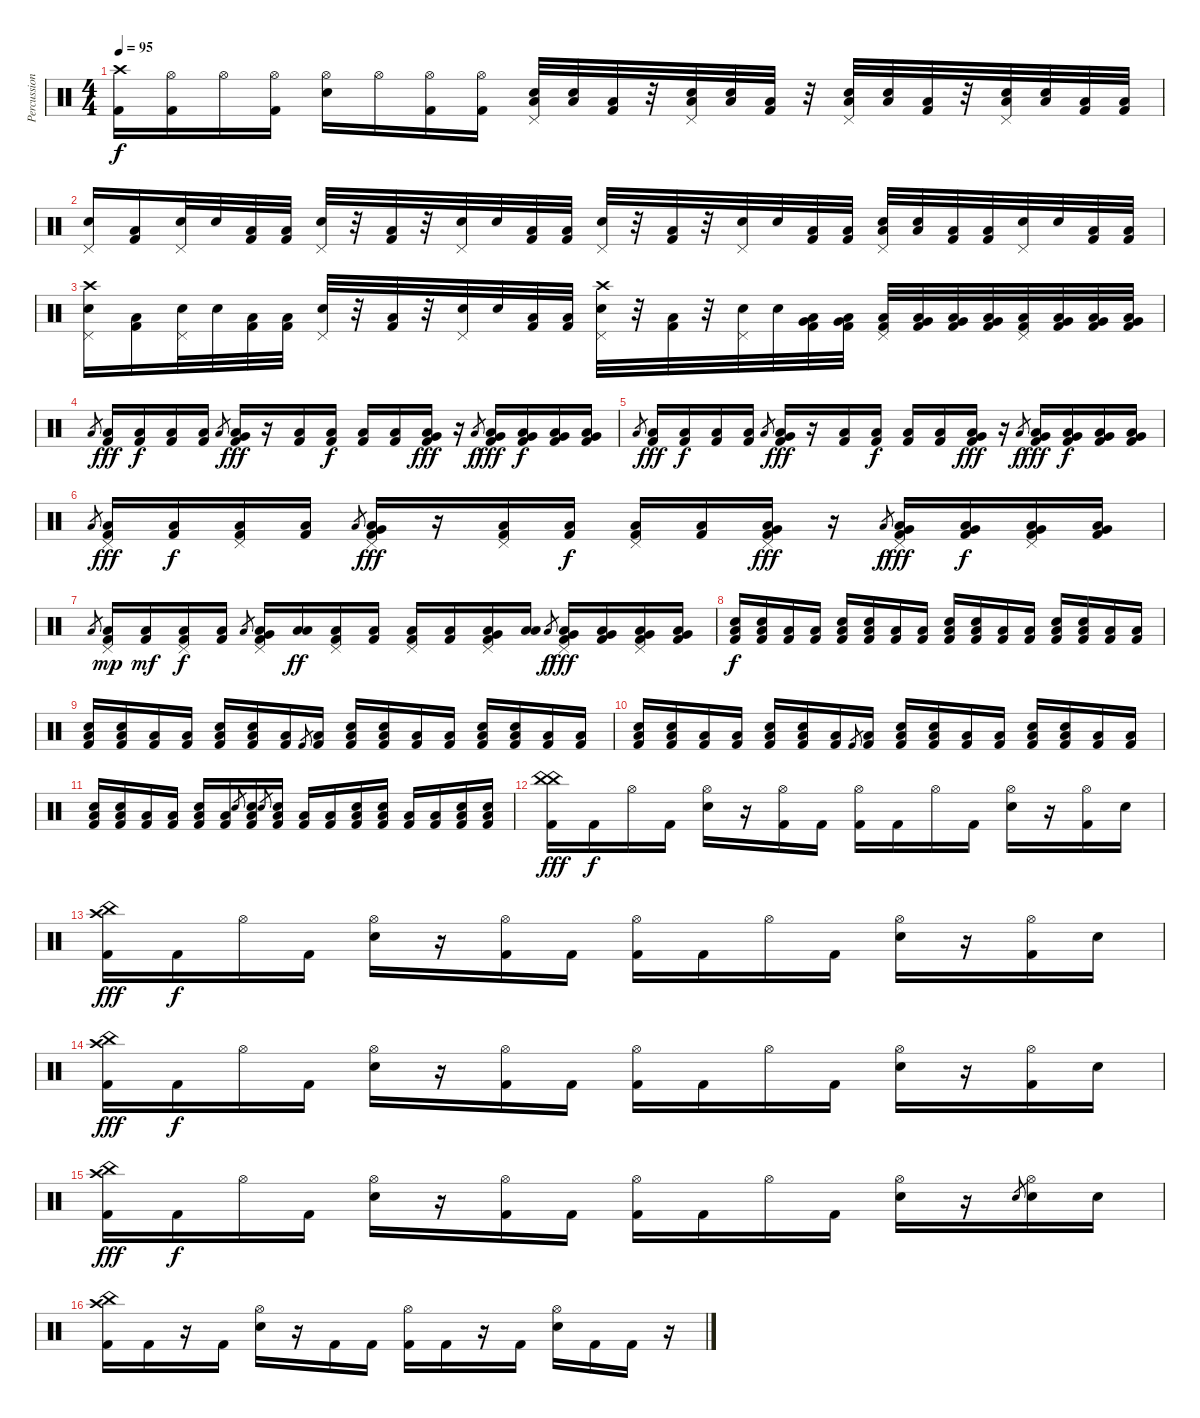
\track ("Percussion" "Percussion") {instrument percussion}
\staff {score}
\articulation defaults
\ts (4 4)
\tempo 95
\clef neutral
\ks c
("Crash high (hit)" "Kick (hit) 2").16{dy f} ("Hi-Hat (open)" "Kick (hit) 2").16 "Hi-Hat (open)".16 ("Hi-Hat (open)" "Kick (hit) 2").16 ("Hi-Hat (open)" "Electric Snare (hit)").16 "Hi-Hat (open)".16 ("Hi-Hat (open)" "Kick (hit) 2").16 ("Hi-Hat (open)" "Kick (hit) 2").16 ("Low Floor Tom (hit)" "Pedal Hi-Hat (hit)" "Electric Snare (hit)").32 ("Low Floor Tom (hit)" "Electric Snare (hit)").32 ("Low Floor Tom (hit)" "Kick (hit) 2").32 r.32 ("Low Floor Tom (hit)" "Pedal Hi-Hat (hit)" "Electric Snare (hit)").32 ("Low Floor Tom (hit)" "Electric Snare (hit)").32 ("Low Floor Tom (hit)" "Kick (hit) 2").32 r.32 ("Low Floor Tom (hit)" "Pedal Hi-Hat (hit)" "Electric Snare (hit)").32 ("Low Floor Tom (hit)" "Electric Snare (hit)").32 ("Low Floor Tom (hit)" "Kick (hit) 2").32 r.32 ("Low Floor Tom (hit)" "Pedal Hi-Hat (hit)" "Electric Snare (hit)").32 ("Low Floor Tom (hit)" "Electric Snare (hit)").32 ("Low Floor Tom (hit)" "Kick (hit) 2").32 ("Low Floor Tom (hit)" "Kick (hit) 2").32 |
("Pedal Hi-Hat (hit)" "Electric Snare (hit)").16 ("Low Floor Tom (hit)" "Kick (hit) 2").16 ("Pedal Hi-Hat (hit)" "Electric Snare (hit)").32 "Electric Snare (hit)".32 ("Low Floor Tom (hit)" "Kick (hit) 2").32 ("Low Floor Tom (hit)" "Kick (hit) 2").32 ("Pedal Hi-Hat (hit)" "Electric Snare (hit)").32 r.32 ("Low Floor Tom (hit)" "Kick (hit) 2").32 r.32 ("Pedal Hi-Hat (hit)" "Electric Snare (hit)").32 "Electric Snare (hit)".32 ("Low Floor Tom (hit)" "Kick (hit) 2").32 ("Low Floor Tom (hit)" "Kick (hit) 2").32 ("Pedal Hi-Hat (hit)" "Electric Snare (hit)").32 r.32 ("Low Floor Tom (hit)" "Kick (hit) 2").32 r.32 ("Pedal Hi-Hat (hit)" "Electric Snare (hit)").32 "Electric Snare (hit)".32 ("Low Floor Tom (hit)" "Kick (hit) 2").32 ("Low Floor Tom (hit)" "Kick (hit) 2").32 ("Pedal Hi-Hat (hit)" "Low Floor Tom (hit)" "Electric Snare (hit)").32 ("Low Floor Tom (hit)" "Electric Snare (hit)").32 ("Low Floor Tom (hit)" "Kick (hit) 2").32 ("Low Floor Tom (hit)" "Kick (hit) 2").32 ("Pedal Hi-Hat (hit)" "Electric Snare (hit)").32 "Electric Snare (hit)".32 ("Low Floor Tom (hit)" "Kick (hit) 2").32 ("Low Floor Tom (hit)" "Kick (hit) 2").32 |
("Crash high (hit)" "Pedal Hi-Hat (hit)" "Electric Snare (hit)").16 ("Low Floor Tom (hit)" "Kick (hit) 2").16 ("Pedal Hi-Hat (hit)" "Electric Snare (hit)").32 "Electric Snare (hit)".32 ("Low Floor Tom (hit)" "Kick (hit) 2").32 ("Low Floor Tom (hit)" "Kick (hit) 2").32 ("Pedal Hi-Hat (hit)" "Electric Snare (hit)").32 r.32 ("Low Floor Tom (hit)" "Kick (hit) 2").32 r.32 ("Pedal Hi-Hat (hit)" "Electric Snare (hit)").32 "Electric Snare (hit)".32 ("Low Floor Tom (hit)" "Kick (hit) 2").32 ("Low Floor Tom (hit)" "Kick (hit) 2").32 ("Crash high (hit)" "Pedal Hi-Hat (hit)" "Electric Snare (hit)").32 r.32 ("Low Floor Tom (hit)" "Kick (hit) 2").32 r.32 ("Pedal Hi-Hat (hit)" "Electric Snare (hit)").32 "Electric Snare (hit)".32 ("Very Low Tom (hit)" "Low Floor Tom (hit)" "Kick (hit) 2").32 ("Very Low Tom (hit)" "Low Floor Tom (hit)" "Kick (hit) 2").32 ("Pedal Hi-Hat (hit)" "Low Floor Tom (hit)" "Kick (hit) 2").32 ("Very Low Tom (hit)" "Low Floor Tom (hit)" "Kick (hit) 2").32 ("Very Low Tom (hit)" "Low Floor Tom (hit)" "Kick (hit) 2").32 ("Very Low Tom (hit)" "Low Floor Tom (hit)" "Kick (hit) 2").32 ("Pedal Hi-Hat (hit)" "Low Floor Tom (hit)" "Kick (hit) 2").32 ("Very Low Tom (hit)" "Low Floor Tom (hit)" "Kick (hit) 2").32 ("Very Low Tom (hit)" "Low Floor Tom (hit)" "Kick (hit) 2").32 ("Very Low Tom (hit)" "Low Floor Tom (hit)" "Kick (hit) 2").32 |
"Low Floor Tom (hit)".8{gr} ("Kick (hit) 2" "Low Floor Tom (hit)").16{dy fff} ("Kick (hit) 2" "Low Floor Tom (hit)").16{dy f} ("Kick (hit) 2" "Low Floor Tom (hit)").16 ("Kick (hit) 2" "Low Floor Tom (hit)").16 "Low Floor Tom (hit)".8{gr} ("Very Low Tom (hit)" "Kick (hit) 2" "Low Floor Tom (hit)").16{dy fff} r.16 ("Kick (hit) 2" "Low Floor Tom (hit)").16 ("Kick (hit) 2" "Low Floor Tom (hit)").16{dy f} ("Kick (hit) 2" "Low Floor Tom (hit)").16 ("Kick (hit) 2" "Low Floor Tom (hit)").16 ("Very Low Tom (hit)" "Kick (hit) 2" "Low Floor Tom (hit)").16{dy fff} r.16 "Low Floor Tom (hit)".8{gr dy f} ("Very Low Tom (hit)" "Kick (hit) 2" "Low Floor Tom (hit)").16{dy fff} ("Very Low Tom (hit)" "Kick (hit) 2" "Low Floor Tom (hit)").16{dy f} ("Very Low Tom (hit)" "Kick (hit) 2" "Low Floor Tom (hit)").16 ("Very Low Tom (hit)" "Kick (hit) 2" "Low Floor Tom (hit)").16 |
"Low Floor Tom (hit)".8{gr} ("Kick (hit) 2" "Low Floor Tom (hit)").16{dy fff} ("Kick (hit) 2" "Low Floor Tom (hit)").16{dy f} ("Kick (hit) 2" "Low Floor Tom (hit)").16 ("Kick (hit) 2" "Low Floor Tom (hit)").16 "Low Floor Tom (hit)".8{gr} ("Very Low Tom (hit)" "Kick (hit) 2" "Low Floor Tom (hit)").16{dy fff} r.16 ("Kick (hit) 2" "Low Floor Tom (hit)").16 ("Kick (hit) 2" "Low Floor Tom (hit)").16{dy f} ("Kick (hit) 2" "Low Floor Tom (hit)").16 ("Kick (hit) 2" "Low Floor Tom (hit)").16 ("Very Low Tom (hit)" "Kick (hit) 2" "Low Floor Tom (hit)").16{dy fff} r.16 "Low Floor Tom (hit)".8{gr dy f} ("Very Low Tom (hit)" "Kick (hit) 2" "Low Floor Tom (hit)").16{dy fff} ("Very Low Tom (hit)" "Kick (hit) 2" "Low Floor Tom (hit)").16{dy f} ("Very Low Tom (hit)" "Kick (hit) 2" "Low Floor Tom (hit)").16 ("Very Low Tom (hit)" "Kick (hit) 2" "Low Floor Tom (hit)").16 |
"Low Floor Tom (hit)".8{gr} ("Pedal Hi-Hat (hit)" "Kick (hit) 2" "Low Floor Tom (hit)").16{dy fff} ("Kick (hit) 2" "Low Floor Tom (hit)").16{dy f} ("Pedal Hi-Hat (hit)" "Kick (hit) 2" "Low Floor Tom (hit)").16 ("Kick (hit) 2" "Low Floor Tom (hit)").16 "Low Floor Tom (hit)".8{gr} ("Pedal Hi-Hat (hit)" "Very Low Tom (hit)" "Kick (hit) 2" "Low Floor Tom (hit)").16{dy fff} r.16 ("Pedal Hi-Hat (hit)" "Kick (hit) 2" "Low Floor Tom (hit)").16 ("Kick (hit) 2" "Low Floor Tom (hit)").16{dy f} ("Pedal Hi-Hat (hit)" "Kick (hit) 2" "Low Floor Tom (hit)").16 ("Kick (hit) 2" "Low Floor Tom (hit)").16 ("Pedal Hi-Hat (hit)" "Very Low Tom (hit)" "Kick (hit) 2" "Low Floor Tom (hit)").16{dy fff} r.16 "Low Floor Tom (hit)".8{gr dy f} ("Pedal Hi-Hat (hit)" "Very Low Tom (hit)" "Kick (hit) 2" "Low Floor Tom (hit)").16{dy fff} ("Very Low Tom (hit)" "Kick (hit) 2" "Low Floor Tom (hit)").16{dy f} ("Pedal Hi-Hat (hit)" "Very Low Tom (hit)" "Kick (hit) 2" "Low Floor Tom (hit)").16 ("Very Low Tom (hit)" "Kick (hit) 2" "Low Floor Tom (hit)").16 |
"Low Floor Tom (hit)".8{gr} ("Pedal Hi-Hat (hit)" "Kick (hit) 2" "Low Floor Tom (hit)").16{dy mp} ("Kick (hit) 2" "Low Floor Tom (hit)").16{dy mf} ("Pedal Hi-Hat (hit)" "Kick (hit) 2" "Low Floor Tom (hit)").16{dy f} ("Kick (hit) 2" "Low Floor Tom (hit)").16 "Low Floor Tom (hit)".8{gr} ("Pedal Hi-Hat (hit)" "Very Low Tom (hit)" "Kick (hit) 2" "Low Floor Tom (hit)").16 ("Low Floor Tom (hit)" "Low Floor Tom (hit)").16{dy ff} ("Pedal Hi-Hat (hit)" "Kick (hit) 2" "Low Floor Tom (hit)").16 ("Kick (hit) 2" "Low Floor Tom (hit)").16 ("Pedal Hi-Hat (hit)" "Kick (hit) 2" "Low Floor Tom (hit)").16 ("Kick (hit) 2" "Low Floor Tom (hit)").16 ("Pedal Hi-Hat (hit)" "Very Low Tom (hit)" "Kick (hit) 2" "Low Floor Tom (hit)").16 ("Low Floor Tom (hit)" "Low Floor Tom (hit)").16 "Low Floor Tom (hit)".8{gr dy f} ("Pedal Hi-Hat (hit)" "Very Low Tom (hit)" "Kick (hit) 2" "Low Floor Tom (hit)").16{dy fff} ("Very Low Tom (hit)" "Kick (hit) 2" "Low Floor Tom (hit)").16 ("Pedal Hi-Hat (hit)" "Very Low Tom (hit)" "Kick (hit) 2" "Low Floor Tom (hit)").16 ("Very Low Tom (hit)" "Kick (hit) 2" "Low Floor Tom (hit)").16 |
("Low Floor Tom (hit)" "Electric Snare (hit)" "Kick (hit) 2").16{dy f} ("Low Floor Tom (hit)" "Electric Snare (hit)" "Kick (hit) 2").16 ("Low Floor Tom (hit)" "Kick (hit) 2").16 ("Low Floor Tom (hit)" "Kick (hit) 2").16 ("Low Floor Tom (hit)" "Electric Snare (hit)" "Kick (hit) 2").16 ("Low Floor Tom (hit)" "Electric Snare (hit)" "Kick (hit) 2").16 ("Low Floor Tom (hit)" "Kick (hit) 2").16 ("Low Floor Tom (hit)" "Kick (hit) 2").16 ("Low Floor Tom (hit)" "Electric Snare (hit)" "Kick (hit) 2").16 ("Low Floor Tom (hit)" "Electric Snare (hit)" "Kick (hit) 2").16 ("Low Floor Tom (hit)" "Kick (hit) 2").16 ("Low Floor Tom (hit)" "Kick (hit) 2").16 ("Low Floor Tom (hit)" "Electric Snare (hit)" "Kick (hit) 2").16 ("Low Floor Tom (hit)" "Electric Snare (hit)" "Kick (hit) 2").16 ("Low Floor Tom (hit)" "Kick (hit) 2").16 ("Low Floor Tom (hit)" "Kick (hit) 2").16 |
("Low Floor Tom (hit)" "Electric Snare (hit)" "Kick (hit) 2").16 ("Low Floor Tom (hit)" "Electric Snare (hit)" "Kick (hit) 2").16 ("Low Floor Tom (hit)" "Kick (hit) 2").16 ("Low Floor Tom (hit)" "Kick (hit) 2").16 ("Low Floor Tom (hit)" "Electric Snare (hit)" "Kick (hit) 2").16 ("Low Floor Tom (hit)" "Electric Snare (hit)" "Kick (hit) 2").16 ("Low Floor Tom (hit)" "Kick (hit) 2").16 "Kick (hit) 2".8{gr} ("Low Floor Tom (hit)" "Kick (hit) 2").16 ("Low Floor Tom (hit)" "Electric Snare (hit)" "Kick (hit) 2").16 ("Low Floor Tom (hit)" "Electric Snare (hit)" "Kick (hit) 2").16 ("Low Floor Tom (hit)" "Kick (hit) 2").16 ("Low Floor Tom (hit)" "Kick (hit) 2").16 ("Low Floor Tom (hit)" "Electric Snare (hit)" "Kick (hit) 2").16 ("Low Floor Tom (hit)" "Electric Snare (hit)" "Kick (hit) 2").16 ("Low Floor Tom (hit)" "Kick (hit) 2").16 ("Low Floor Tom (hit)" "Kick (hit) 2").16 |
("Low Floor Tom (hit)" "Electric Snare (hit)" "Kick (hit) 2").16 ("Low Floor Tom (hit)" "Electric Snare (hit)" "Kick (hit) 2").16 ("Low Floor Tom (hit)" "Kick (hit) 2").16 ("Low Floor Tom (hit)" "Kick (hit) 2").16 ("Low Floor Tom (hit)" "Electric Snare (hit)" "Kick (hit) 2").16 ("Low Floor Tom (hit)" "Electric Snare (hit)" "Kick (hit) 2").16 ("Low Floor Tom (hit)" "Kick (hit) 2").16 "Kick (hit) 2".8{gr} ("Low Floor Tom (hit)" "Kick (hit) 2").16 ("Low Floor Tom (hit)" "Electric Snare (hit)" "Kick (hit) 2").16 ("Low Floor Tom (hit)" "Electric Snare (hit)" "Kick (hit) 2").16 ("Low Floor Tom (hit)" "Kick (hit) 2").16 ("Low Floor Tom (hit)" "Kick (hit) 2").16 ("Low Floor Tom (hit)" "Electric Snare (hit)" "Kick (hit) 2").16 ("Low Floor Tom (hit)" "Electric Snare (hit)" "Kick (hit) 2").16 ("Low Floor Tom (hit)" "Kick (hit) 2").16 ("Low Floor Tom (hit)" "Kick (hit) 2").16 |
("Low Floor Tom (hit)" "Electric Snare (hit)" "Kick (hit) 2").16 ("Low Floor Tom (hit)" "Electric Snare (hit)" "Kick (hit) 2").16 ("Low Floor Tom (hit)" "Kick (hit) 2").16 ("Low Floor Tom (hit)" "Kick (hit) 2").16 ("Low Floor Tom (hit)" "Electric Snare (hit)" "Kick (hit) 2").16 ("Low Floor Tom (hit)" "Kick (hit) 2").16 "Electric Snare (hit)".8{gr} ("Low Floor Tom (hit)" "Electric Snare (hit)" "Kick (hit) 2").16 "Electric Snare (hit)".8{gr} ("Low Floor Tom (hit)" "Electric Snare (hit)" "Kick (hit) 2").16 ("Low Floor Tom (hit)" "Kick (hit) 2").16 ("Low Floor Tom (hit)" "Kick (hit) 2").16 ("Low Floor Tom (hit)" "Electric Snare (hit)" "Kick (hit) 2").16 ("Low Floor Tom (hit)" "Electric Snare (hit)" "Kick (hit) 2").16 ("Low Floor Tom (hit)" "Kick (hit) 2").16 ("Low Floor Tom (hit)" "Kick (hit) 2").16 ("Low Floor Tom (hit)" "Electric Snare (hit)" "Kick (hit) 2").16 ("Low Floor Tom (hit)" "Electric Snare (hit)" "Kick (hit) 2").16 |
("China (hit)" "China (hit)" "Kick (hit) 2").16{dy fff} "Kick (hit) 2".16{dy f} "Hi-Hat (open)".16 "Kick (hit) 2".16 ("Hi-Hat (open)" "Electric Snare (hit)").16 r.16 ("Hi-Hat (open)" "Kick (hit) 2").16 "Kick (hit) 2".16 ("Hi-Hat (open)" "Kick (hit) 2").16 "Kick (hit) 2".16 "Hi-Hat (open)".16 "Kick (hit) 2".16 ("Hi-Hat (open)" "Electric Snare (hit)").16 r.16 ("Hi-Hat (open)" "Kick (hit) 2").16 "Electric Snare (hit)".16 |
("Crash high (hit)" "China (hit)" "Kick (hit) 2").16{dy fff} "Kick (hit) 2".16{dy f} "Hi-Hat (open)".16 "Kick (hit) 2".16 ("Hi-Hat (open)" "Electric Snare (hit)").16 r.16 ("Hi-Hat (open)" "Kick (hit) 2").16 "Kick (hit) 2".16 ("Hi-Hat (open)" "Kick (hit) 2").16 "Kick (hit) 2".16 "Hi-Hat (open)".16 "Kick (hit) 2".16 ("Hi-Hat (open)" "Electric Snare (hit)").16 r.16 ("Hi-Hat (open)" "Kick (hit) 2").16 "Electric Snare (hit)".16 |
("Crash high (hit)" "China (hit)" "Kick (hit) 2").16{dy fff} "Kick (hit) 2".16{dy f} "Hi-Hat (open)".16 "Kick (hit) 2".16 ("Hi-Hat (open)" "Electric Snare (hit)").16 r.16 ("Hi-Hat (open)" "Kick (hit) 2").16 "Kick (hit) 2".16 ("Hi-Hat (open)" "Kick (hit) 2").16 "Kick (hit) 2".16 "Hi-Hat (open)".16 "Kick (hit) 2".16 ("Hi-Hat (open)" "Electric Snare (hit)").16 r.16 ("Hi-Hat (open)" "Kick (hit) 2").16 "Electric Snare (hit)".16 |
("Crash high (hit)" "China (hit)" "Kick (hit) 2").16{dy fff} "Kick (hit) 2".16{dy f} "Hi-Hat (open)".16 "Kick (hit) 2".16 ("Hi-Hat (open)" "Electric Snare (hit)").16 r.16 ("Hi-Hat (open)" "Kick (hit) 2").16 "Kick (hit) 2".16 ("Hi-Hat (open)" "Kick (hit) 2").16 "Kick (hit) 2".16 "Hi-Hat (open)".16 "Kick (hit) 2".16 ("Hi-Hat (open)" "Electric Snare (hit)").16 r.16 "Electric Snare (hit)".8{gr} ("Hi-Hat (open)" "Electric Snare (hit)").16 "Electric Snare (hit)".16 |
("China (hit)" "Crash high (hit)" "Kick (hit) 2").16 "Kick (hit) 2".16 r.16 "Kick (hit) 2".16 ("Hi-Hat (open)" "Electric Snare (hit)").16 r.16 "Kick (hit) 2".16 "Kick (hit) 2".16 ("Hi-Hat (open)" "Kick (hit) 2").16 "Kick (hit) 2".16 r.16 "Kick (hit) 2".16 ("Hi-Hat (open)" "Electric Snare (hit)").16 "Kick (hit) 2".16 "Kick (hit) 2".16 r.16
